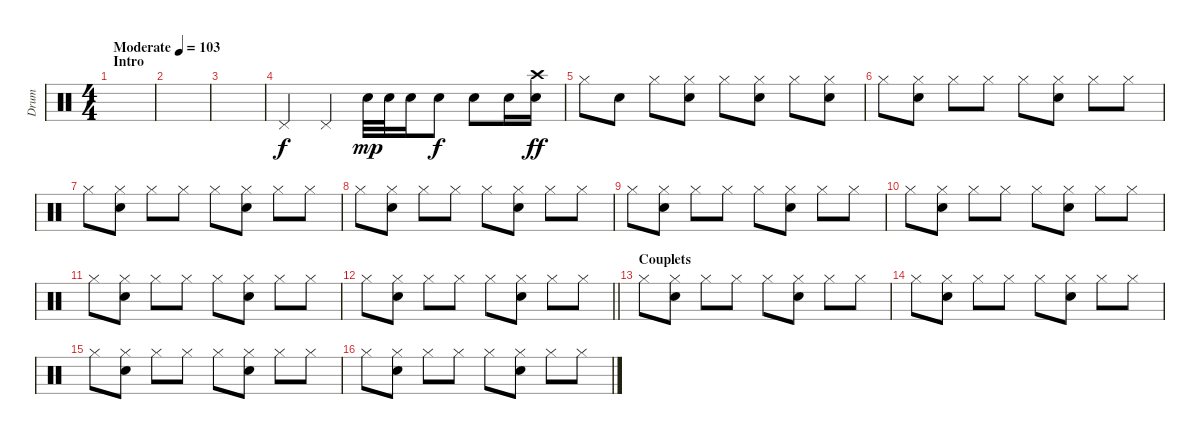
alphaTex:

\track ("Drum" "Drum") {instrument percussion}
\staff {score}
\articulation defaults
\ts (4 4)
\section ("" "Intro")
\tempo (103 "Moderate")
\clef neutral
\ks c
|
|
|
"Pedal Hi-Hat (hit)".4 "Pedal Hi-Hat (hit)".4 "Electric Snare (hit)".32{dy mp} "Electric Snare (hit)".32 "Electric Snare (hit)".16 "Electric Snare (hit)".8{dy f} "Electric Snare (hit)".8 "Electric Snare (hit)".16 ("Crash high (hit)" "Electric Snare (hit)").16{dy ff} |
"Hi-Hat (closed)".8 "Electric Snare (hit)".8 "Hi-Hat (closed)".8 ("Hi-Hat (closed)" "Electric Snare (hit)").8 "Hi-Hat (closed)".8 ("Hi-Hat (closed)" "Electric Snare (hit)").8 "Hi-Hat (closed)".8 ("Hi-Hat (closed)" "Electric Snare (hit)").8 |
"Hi-Hat (closed)".8 ("Hi-Hat (closed)" "Electric Snare (hit)").8 "Hi-Hat (closed)".8 "Hi-Hat (closed)".8 "Hi-Hat (closed)".8 ("Hi-Hat (closed)" "Electric Snare (hit)").8 "Hi-Hat (closed)".8 "Hi-Hat (closed)".8 |
"Hi-Hat (closed)".8 ("Hi-Hat (closed)" "Electric Snare (hit)").8 "Hi-Hat (closed)".8 "Hi-Hat (closed)".8 "Hi-Hat (closed)".8 ("Hi-Hat (closed)" "Electric Snare (hit)").8 "Hi-Hat (closed)".8 "Hi-Hat (closed)".8 |
"Hi-Hat (closed)".8 ("Hi-Hat (closed)" "Electric Snare (hit)").8 "Hi-Hat (closed)".8 "Hi-Hat (closed)".8 "Hi-Hat (closed)".8 ("Hi-Hat (closed)" "Electric Snare (hit)").8 "Hi-Hat (closed)".8 "Hi-Hat (closed)".8 |
"Hi-Hat (closed)".8 ("Hi-Hat (closed)" "Electric Snare (hit)").8 "Hi-Hat (closed)".8 "Hi-Hat (closed)".8 "Hi-Hat (closed)".8 ("Hi-Hat (closed)" "Electric Snare (hit)").8 "Hi-Hat (closed)".8 "Hi-Hat (closed)".8 |
"Hi-Hat (closed)".8 ("Hi-Hat (closed)" "Electric Snare (hit)").8 "Hi-Hat (closed)".8 "Hi-Hat (closed)".8 "Hi-Hat (closed)".8 ("Hi-Hat (closed)" "Electric Snare (hit)").8 "Hi-Hat (closed)".8 "Hi-Hat (closed)".8 |
"Hi-Hat (closed)".8 ("Hi-Hat (closed)" "Electric Snare (hit)").8 "Hi-Hat (closed)".8 "Hi-Hat (closed)".8 "Hi-Hat (closed)".8 ("Hi-Hat (closed)" "Electric Snare (hit)").8 "Hi-Hat (closed)".8 "Hi-Hat (closed)".8 |
\barLineRight lightlight "Hi-Hat (closed)".8
("Hi-Hat (closed)" "Electric Snare (hit)").8 "Hi-Hat (closed)".8 "Hi-Hat (closed)".8 "Hi-Hat (closed)".8 ("Hi-Hat (closed)" "Electric Snare (hit)").8 "Hi-Hat (closed)".8 "Hi-Hat (closed)".8 |
\section ("" "Couplets")
"Hi-Hat (closed)".8 ("Hi-Hat (closed)" "Electric Snare (hit)").8 "Hi-Hat (closed)".8 "Hi-Hat (closed)".8 "Hi-Hat (closed)".8 ("Hi-Hat (closed)" "Electric Snare (hit)").8 "Hi-Hat (closed)".8 "Hi-Hat (closed)".8 |
"Hi-Hat (closed)".8 ("Hi-Hat (closed)" "Electric Snare (hit)").8 "Hi-Hat (closed)".8 "Hi-Hat (closed)".8 "Hi-Hat (closed)".8 ("Hi-Hat (closed)" "Electric Snare (hit)").8 "Hi-Hat (closed)".8 "Hi-Hat (closed)".8 |
"Hi-Hat (closed)".8 ("Hi-Hat (closed)" "Electric Snare (hit)").8 "Hi-Hat (closed)".8 "Hi-Hat (closed)".8 "Hi-Hat (closed)".8 ("Hi-Hat (closed)" "Electric Snare (hit)").8 "Hi-Hat (closed)".8 "Hi-Hat (closed)".8 |
"Hi-Hat (closed)".8 ("Hi-Hat (closed)" "Electric Snare (hit)").8 "Hi-Hat (closed)".8 "Hi-Hat (closed)".8 "Hi-Hat (closed)".8 ("Hi-Hat (closed)" "Electric Snare (hit)").8 "Hi-Hat (closed)".8 "Hi-Hat (closed)".8
